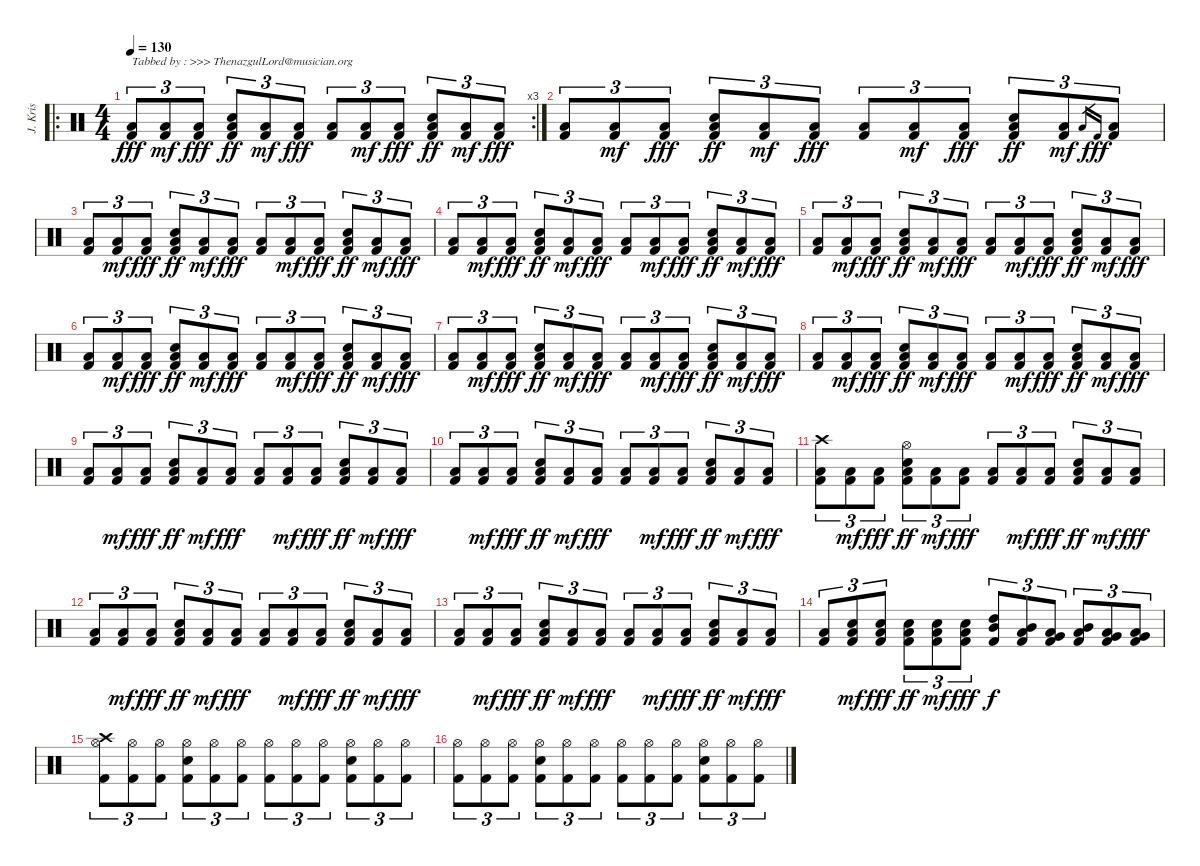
\track ("   J. Kristensson (drums)" "   J. Kris") {instrument percussion}
\staff {score}
\articulation defaults
\ro
\rc 3
\ts (4 4)
\tempo 130
\clef neutral
\ks c
("Low Floor Tom (hit)" "Kick (hit) 2").8{tu (3 2) txt "Tabbed by : >>> ThenazgulLord@musician.org" dy fff} ("Low Floor Tom (hit)" "Kick (hit) 2").8{tu (3 2) dy mf} ("Low Floor Tom (hit)" "Kick (hit) 2").8{tu (3 2) dy fff} ("Low Floor Tom (hit)" "Electric Snare (hit)" "Kick (hit) 2").8{tu (3 2) dy ff} ("Low Floor Tom (hit)" "Kick (hit) 2").8{tu (3 2) dy mf} ("Low Floor Tom (hit)" "Kick (hit) 2").8{tu (3 2) dy fff} ("Low Floor Tom (hit)" "Kick (hit) 2").8{tu (3 2)} ("Low Floor Tom (hit)" "Kick (hit) 2").8{tu (3 2) dy mf} ("Low Floor Tom (hit)" "Kick (hit) 2").8{tu (3 2) dy fff} ("Low Floor Tom (hit)" "Electric Snare (hit)" "Kick (hit) 2").8{tu (3 2) dy ff} ("Low Floor Tom (hit)" "Kick (hit) 2").8{tu (3 2) dy mf} ("Low Floor Tom (hit)" "Kick (hit) 2").8{tu (3 2) dy fff} |
("Low Floor Tom (hit)" "Kick (hit) 2").8{tu (3 2)} ("Low Floor Tom (hit)" "Kick (hit) 2").8{tu (3 2) dy mf} ("Low Floor Tom (hit)" "Kick (hit) 2").8{tu (3 2) dy fff} ("Low Floor Tom (hit)" "Electric Snare (hit)" "Kick (hit) 2").8{tu (3 2) dy ff} ("Low Floor Tom (hit)" "Kick (hit) 2").8{tu (3 2) dy mf} ("Low Floor Tom (hit)" "Kick (hit) 2").8{tu (3 2) dy fff} ("Low Floor Tom (hit)" "Kick (hit) 2").8{tu (3 2)} ("Low Floor Tom (hit)" "Kick (hit) 2").8{tu (3 2) dy mf} ("Low Floor Tom (hit)" "Kick (hit) 2").8{tu (3 2) dy fff} ("Low Floor Tom (hit)" "Electric Snare (hit)" "Kick (hit) 2").8{tu (3 2) dy ff} ("Low Floor Tom (hit)" "Kick (hit) 2").8{tu (3 2) dy mf} "Low Floor Tom (hit)".16{gr} "Kick (hit) 2".16{gr dy fff} ("Low Floor Tom (hit)" "Kick (hit) 2").8{tu (3 2)} |
("Low Floor Tom (hit)" "Kick (hit) 2").8{tu (3 2)} ("Low Floor Tom (hit)" "Kick (hit) 2").8{tu (3 2) dy mf} ("Low Floor Tom (hit)" "Kick (hit) 2").8{tu (3 2) dy fff} ("Low Floor Tom (hit)" "Electric Snare (hit)" "Kick (hit) 2").8{tu (3 2) dy ff} ("Low Floor Tom (hit)" "Kick (hit) 2").8{tu (3 2) dy mf} ("Low Floor Tom (hit)" "Kick (hit) 2").8{tu (3 2) dy fff} ("Low Floor Tom (hit)" "Kick (hit) 2").8{tu (3 2)} ("Low Floor Tom (hit)" "Kick (hit) 2").8{tu (3 2) dy mf} ("Low Floor Tom (hit)" "Kick (hit) 2").8{tu (3 2) dy fff} ("Low Floor Tom (hit)" "Electric Snare (hit)" "Kick (hit) 2").8{tu (3 2) dy ff} ("Low Floor Tom (hit)" "Kick (hit) 2").8{tu (3 2) dy mf} ("Low Floor Tom (hit)" "Kick (hit) 2").8{tu (3 2) dy fff} |
("Low Floor Tom (hit)" "Kick (hit) 2").8{tu (3 2)} ("Low Floor Tom (hit)" "Kick (hit) 2").8{tu (3 2) dy mf} ("Low Floor Tom (hit)" "Kick (hit) 2").8{tu (3 2) dy fff} ("Low Floor Tom (hit)" "Electric Snare (hit)" "Kick (hit) 2").8{tu (3 2) dy ff} ("Low Floor Tom (hit)" "Kick (hit) 2").8{tu (3 2) dy mf} ("Low Floor Tom (hit)" "Kick (hit) 2").8{tu (3 2) dy fff} ("Low Floor Tom (hit)" "Kick (hit) 2").8{tu (3 2)} ("Low Floor Tom (hit)" "Kick (hit) 2").8{tu (3 2) dy mf} ("Low Floor Tom (hit)" "Kick (hit) 2").8{tu (3 2) dy fff} ("Low Floor Tom (hit)" "Electric Snare (hit)" "Kick (hit) 2").8{tu (3 2) dy ff} ("Low Floor Tom (hit)" "Kick (hit) 2").8{tu (3 2) dy mf} ("Low Floor Tom (hit)" "Kick (hit) 2").8{tu (3 2) dy fff} |
("Low Floor Tom (hit)" "Kick (hit) 2").8{tu (3 2)} ("Low Floor Tom (hit)" "Kick (hit) 2").8{tu (3 2) dy mf} ("Low Floor Tom (hit)" "Kick (hit) 2").8{tu (3 2) dy fff} ("Low Floor Tom (hit)" "Electric Snare (hit)" "Kick (hit) 2").8{tu (3 2) dy ff} ("Low Floor Tom (hit)" "Kick (hit) 2").8{tu (3 2) dy mf} ("Low Floor Tom (hit)" "Kick (hit) 2").8{tu (3 2) dy fff} ("Low Floor Tom (hit)" "Kick (hit) 2").8{tu (3 2)} ("Low Floor Tom (hit)" "Kick (hit) 2").8{tu (3 2) dy mf} ("Low Floor Tom (hit)" "Kick (hit) 2").8{tu (3 2) dy fff} ("Low Floor Tom (hit)" "Electric Snare (hit)" "Kick (hit) 2").8{tu (3 2) dy ff} ("Low Floor Tom (hit)" "Kick (hit) 2").8{tu (3 2) dy mf} ("Low Floor Tom (hit)" "Kick (hit) 2").8{tu (3 2) dy fff} |
("Low Floor Tom (hit)" "Kick (hit) 2").8{tu (3 2)} ("Low Floor Tom (hit)" "Kick (hit) 2").8{tu (3 2) dy mf} ("Low Floor Tom (hit)" "Kick (hit) 2").8{tu (3 2) dy fff} ("Low Floor Tom (hit)" "Electric Snare (hit)" "Kick (hit) 2").8{tu (3 2) dy ff} ("Low Floor Tom (hit)" "Kick (hit) 2").8{tu (3 2) dy mf} ("Low Floor Tom (hit)" "Kick (hit) 2").8{tu (3 2) dy fff} ("Low Floor Tom (hit)" "Kick (hit) 2").8{tu (3 2)} ("Low Floor Tom (hit)" "Kick (hit) 2").8{tu (3 2) dy mf} ("Low Floor Tom (hit)" "Kick (hit) 2").8{tu (3 2) dy fff} ("Low Floor Tom (hit)" "Electric Snare (hit)" "Kick (hit) 2").8{tu (3 2) dy ff} ("Low Floor Tom (hit)" "Kick (hit) 2").8{tu (3 2) dy mf} ("Low Floor Tom (hit)" "Kick (hit) 2").8{tu (3 2) dy fff} |
("Low Floor Tom (hit)" "Kick (hit) 2").8{tu (3 2)} ("Low Floor Tom (hit)" "Kick (hit) 2").8{tu (3 2) dy mf} ("Low Floor Tom (hit)" "Kick (hit) 2").8{tu (3 2) dy fff} ("Low Floor Tom (hit)" "Electric Snare (hit)" "Kick (hit) 2").8{tu (3 2) dy ff} ("Low Floor Tom (hit)" "Kick (hit) 2").8{tu (3 2) dy mf} ("Low Floor Tom (hit)" "Kick (hit) 2").8{tu (3 2) dy fff} ("Low Floor Tom (hit)" "Kick (hit) 2").8{tu (3 2)} ("Low Floor Tom (hit)" "Kick (hit) 2").8{tu (3 2) dy mf} ("Low Floor Tom (hit)" "Kick (hit) 2").8{tu (3 2) dy fff} ("Low Floor Tom (hit)" "Electric Snare (hit)" "Kick (hit) 2").8{tu (3 2) dy ff} ("Low Floor Tom (hit)" "Kick (hit) 2").8{tu (3 2) dy mf} ("Low Floor Tom (hit)" "Kick (hit) 2").8{tu (3 2) dy fff} |
("Low Floor Tom (hit)" "Kick (hit) 2").8{tu (3 2)} ("Low Floor Tom (hit)" "Kick (hit) 2").8{tu (3 2) dy mf} ("Low Floor Tom (hit)" "Kick (hit) 2").8{tu (3 2) dy fff} ("Low Floor Tom (hit)" "Electric Snare (hit)" "Kick (hit) 2").8{tu (3 2) dy ff} ("Low Floor Tom (hit)" "Kick (hit) 2").8{tu (3 2) dy mf} ("Low Floor Tom (hit)" "Kick (hit) 2").8{tu (3 2) dy fff} ("Low Floor Tom (hit)" "Kick (hit) 2").8{tu (3 2)} ("Low Floor Tom (hit)" "Kick (hit) 2").8{tu (3 2) dy mf} ("Low Floor Tom (hit)" "Kick (hit) 2").8{tu (3 2) dy fff} ("Low Floor Tom (hit)" "Electric Snare (hit)" "Kick (hit) 2").8{tu (3 2) dy ff} ("Low Floor Tom (hit)" "Kick (hit) 2").8{tu (3 2) dy mf} ("Low Floor Tom (hit)" "Kick (hit) 2").8{tu (3 2) dy fff} |
("Low Floor Tom (hit)" "Kick (hit) 2").8{tu (3 2)} ("Low Floor Tom (hit)" "Kick (hit) 2").8{tu (3 2) dy mf} ("Low Floor Tom (hit)" "Kick (hit) 2").8{tu (3 2) dy fff} ("Low Floor Tom (hit)" "Electric Snare (hit)" "Kick (hit) 2").8{tu (3 2) dy ff} ("Low Floor Tom (hit)" "Kick (hit) 2").8{tu (3 2) dy mf} ("Low Floor Tom (hit)" "Kick (hit) 2").8{tu (3 2) dy fff} ("Low Floor Tom (hit)" "Kick (hit) 2").8{tu (3 2)} ("Low Floor Tom (hit)" "Kick (hit) 2").8{tu (3 2) dy mf} ("Low Floor Tom (hit)" "Kick (hit) 2").8{tu (3 2) dy fff} ("Low Floor Tom (hit)" "Electric Snare (hit)" "Kick (hit) 2").8{tu (3 2) dy ff} ("Low Floor Tom (hit)" "Kick (hit) 2").8{tu (3 2) dy mf} ("Low Floor Tom (hit)" "Kick (hit) 2").8{tu (3 2) dy fff} |
("Low Floor Tom (hit)" "Kick (hit) 2").8{tu (3 2)} ("Low Floor Tom (hit)" "Kick (hit) 2").8{tu (3 2) dy mf} ("Low Floor Tom (hit)" "Kick (hit) 2").8{tu (3 2) dy fff} ("Low Floor Tom (hit)" "Electric Snare (hit)" "Kick (hit) 2").8{tu (3 2) dy ff} ("Low Floor Tom (hit)" "Kick (hit) 2").8{tu (3 2) dy mf} ("Low Floor Tom (hit)" "Kick (hit) 2").8{tu (3 2) dy fff} ("Low Floor Tom (hit)" "Kick (hit) 2").8{tu (3 2)} ("Low Floor Tom (hit)" "Kick (hit) 2").8{tu (3 2) dy mf} ("Low Floor Tom (hit)" "Kick (hit) 2").8{tu (3 2) dy fff} ("Low Floor Tom (hit)" "Electric Snare (hit)" "Kick (hit) 2").8{tu (3 2) dy ff} ("Low Floor Tom (hit)" "Kick (hit) 2").8{tu (3 2) dy mf} ("Low Floor Tom (hit)" "Kick (hit) 2").8{tu (3 2) dy fff} |
("Low Floor Tom (hit)" "Crash high (hit)" "Kick (hit) 2").8{tu (3 2)} ("Low Floor Tom (hit)" "Kick (hit) 2").8{tu (3 2) dy mf} ("Low Floor Tom (hit)" "Kick (hit) 2").8{tu (3 2) dy fff} ("Low Floor Tom (hit)" "Electric Snare (hit)" "Hi-Hat (open)" "Kick (hit) 2").8{tu (3 2) dy ff} ("Low Floor Tom (hit)" "Kick (hit) 2").8{tu (3 2) dy mf} ("Low Floor Tom (hit)" "Kick (hit) 2").8{tu (3 2) dy fff} ("Low Floor Tom (hit)" "Kick (hit) 2").8{tu (3 2)} ("Low Floor Tom (hit)" "Kick (hit) 2").8{tu (3 2) dy mf} ("Low Floor Tom (hit)" "Kick (hit) 2").8{tu (3 2) dy fff} ("Low Floor Tom (hit)" "Electric Snare (hit)" "Kick (hit) 2").8{tu (3 2) dy ff} ("Low Floor Tom (hit)" "Kick (hit) 2").8{tu (3 2) dy mf} ("Low Floor Tom (hit)" "Kick (hit) 2").8{tu (3 2) dy fff} |
("Low Floor Tom (hit)" "Kick (hit) 2").8{tu (3 2)} ("Low Floor Tom (hit)" "Kick (hit) 2").8{tu (3 2) dy mf} ("Low Floor Tom (hit)" "Kick (hit) 2").8{tu (3 2) dy fff} ("Low Floor Tom (hit)" "Electric Snare (hit)" "Kick (hit) 2").8{tu (3 2) dy ff} ("Low Floor Tom (hit)" "Kick (hit) 2").8{tu (3 2) dy mf} ("Low Floor Tom (hit)" "Kick (hit) 2").8{tu (3 2) dy fff} ("Low Floor Tom (hit)" "Kick (hit) 2").8{tu (3 2)} ("Low Floor Tom (hit)" "Kick (hit) 2").8{tu (3 2) dy mf} ("Low Floor Tom (hit)" "Kick (hit) 2").8{tu (3 2) dy fff} ("Low Floor Tom (hit)" "Electric Snare (hit)" "Kick (hit) 2").8{tu (3 2) dy ff} ("Low Floor Tom (hit)" "Kick (hit) 2").8{tu (3 2) dy mf} ("Low Floor Tom (hit)" "Kick (hit) 2").8{tu (3 2) dy fff} |
("Low Floor Tom (hit)" "Kick (hit) 2").8{tu (3 2)} ("Low Floor Tom (hit)" "Kick (hit) 2").8{tu (3 2) dy mf} ("Low Floor Tom (hit)" "Kick (hit) 2").8{tu (3 2) dy fff} ("Low Floor Tom (hit)" "Electric Snare (hit)" "Kick (hit) 2").8{tu (3 2) dy ff} ("Low Floor Tom (hit)" "Kick (hit) 2").8{tu (3 2) dy mf} ("Low Floor Tom (hit)" "Kick (hit) 2").8{tu (3 2) dy fff} ("Low Floor Tom (hit)" "Kick (hit) 2").8{tu (3 2)} ("Low Floor Tom (hit)" "Kick (hit) 2").8{tu (3 2) dy mf} ("Low Floor Tom (hit)" "Kick (hit) 2").8{tu (3 2) dy fff} ("Low Floor Tom (hit)" "Electric Snare (hit)" "Kick (hit) 2").8{tu (3 2) dy ff} ("Low Floor Tom (hit)" "Kick (hit) 2").8{tu (3 2) dy mf} ("Low Floor Tom (hit)" "Kick (hit) 2").8{tu (3 2) dy fff} |
("Low Floor Tom (hit)" "Kick (hit) 2").8{tu (3 2)} ("Low Floor Tom (hit)" "Electric Snare (hit)" "Kick (hit) 2").8{tu (3 2) dy mf} ("Low Floor Tom (hit)" "Electric Snare (hit)" "Kick (hit) 2").8{tu (3 2) dy fff} ("Low Floor Tom (hit)" "Electric Snare (hit)" "Kick (hit) 2").8{tu (3 2) dy ff} ("Low Floor Tom (hit)" "Electric Snare (hit)" "Kick (hit) 2").8{tu (3 2) dy mf} ("Low Floor Tom (hit)" "Electric Snare (hit)" "Kick (hit) 2").8{tu (3 2) dy fff} ("High Tom (hit)" "Mid Tom (hit)" "Kick (hit) 2").8{tu (3 2) dy f} ("Mid Tom (hit)" "Low Tom (hit)" "Kick (hit) 2").8{tu (3 2)} ("Low Tom (hit)" "Very Low Tom (hit)" "Kick (hit) 2").8{tu (3 2)} ("Mid Tom (hit)" "Low Tom (hit)" "Kick (hit) 2").8{tu (3 2)} ("Low Tom (hit)" "Very Low Tom (hit)" "Kick (hit) 2").8{tu (3 2)} ("Very Low Tom (hit)" "Low Floor Tom (hit)" "Kick (hit) 2").8{tu (3 2)} |
("Hi-Hat (open)" "Crash high (hit)" "Kick (hit) 2").8{tu (3 2)} ("Hi-Hat (open)" "Kick (hit) 2").8{tu (3 2)} ("Hi-Hat (open)" "Kick (hit) 2").8{tu (3 2)} ("Hi-Hat (open)" "Electric Snare (hit)" "Kick (hit) 2").8{tu (3 2)} ("Hi-Hat (open)" "Kick (hit) 2").8{tu (3 2)} ("Hi-Hat (open)" "Kick (hit) 2").8{tu (3 2)} ("Hi-Hat (open)" "Kick (hit) 2").8{tu (3 2)} ("Hi-Hat (open)" "Kick (hit) 2").8{tu (3 2)} ("Hi-Hat (open)" "Kick (hit) 2").8{tu (3 2)} ("Hi-Hat (open)" "Electric Snare (hit)" "Kick (hit) 2").8{tu (3 2)} ("Hi-Hat (open)" "Kick (hit) 2").8{tu (3 2)} ("Hi-Hat (open)" "Kick (hit) 2").8{tu (3 2)} |
("Hi-Hat (open)" "Kick (hit) 2").8{tu (3 2)} ("Hi-Hat (open)" "Kick (hit) 2").8{tu (3 2)} ("Hi-Hat (open)" "Kick (hit) 2").8{tu (3 2)} ("Hi-Hat (open)" "Electric Snare (hit)" "Kick (hit) 2").8{tu (3 2)} ("Hi-Hat (open)" "Kick (hit) 2").8{tu (3 2)} ("Hi-Hat (open)" "Kick (hit) 2").8{tu (3 2)} ("Hi-Hat (open)" "Kick (hit) 2").8{tu (3 2)} ("Hi-Hat (open)" "Kick (hit) 2").8{tu (3 2)} ("Hi-Hat (open)" "Kick (hit) 2").8{tu (3 2)} ("Hi-Hat (open)" "Electric Snare (hit)" "Kick (hit) 2").8{tu (3 2)} ("Hi-Hat (open)" "Kick (hit) 2").8{tu (3 2)} ("Hi-Hat (open)" "Kick (hit) 2").8{tu (3 2)}
